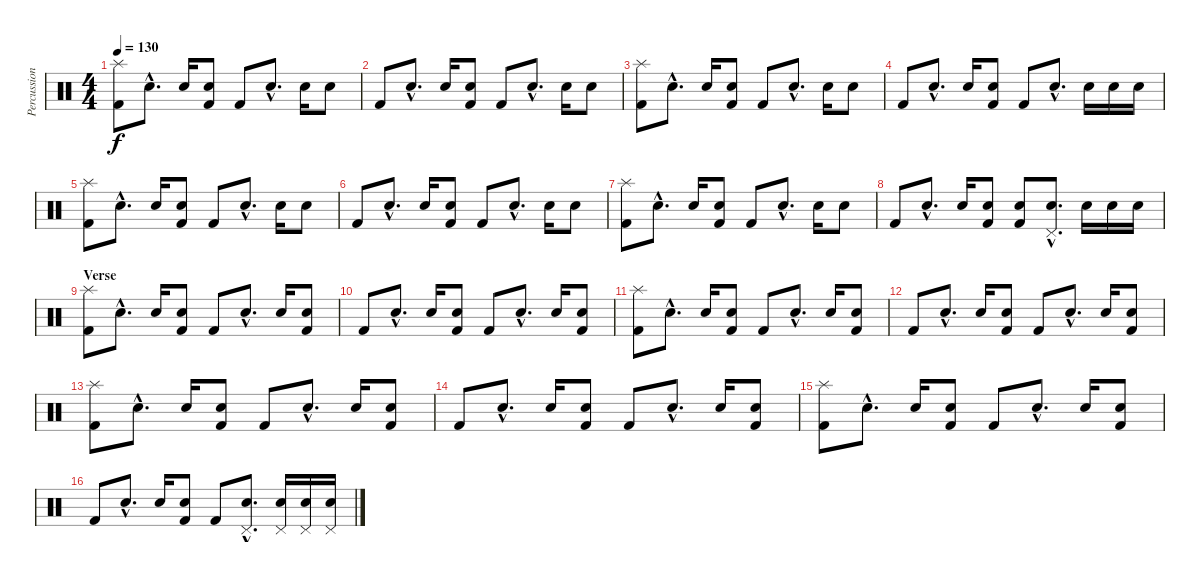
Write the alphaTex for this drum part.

\track ("Percussion" "Percussion") {instrument percussion}
\staff {score}
\articulation defaults
\ts (4 4)
\tempo 130
\clef neutral
\ks c
("Splash (hit)" "Kick (hit) 2").8{dy f} "Electric Snare (hit)"{hac}.8{d} "Electric Snare (hit)".16 ("Electric Snare (hit)" "Kick (hit) 2").8 "Kick (hit) 2".8 "Electric Snare (hit)"{hac}.8{d} "Electric Snare (hit)".16 "Electric Snare (hit)".8 |
"Kick (hit) 2".8 "Electric Snare (hit)"{hac}.8{d} "Electric Snare (hit)".16 ("Electric Snare (hit)" "Kick (hit) 2").8 "Kick (hit) 2".8 "Electric Snare (hit)"{hac}.8{d} "Electric Snare (hit)".16 "Electric Snare (hit)".8 |
("Splash (hit)" "Kick (hit) 2").8 "Electric Snare (hit)"{hac}.8{d} "Electric Snare (hit)".16 ("Electric Snare (hit)" "Kick (hit) 2").8 "Kick (hit) 2".8 "Electric Snare (hit)"{hac}.8{d} "Electric Snare (hit)".16 "Electric Snare (hit)".8 |
"Kick (hit) 2".8 "Electric Snare (hit)"{hac}.8{d} "Electric Snare (hit)".16 ("Electric Snare (hit)" "Kick (hit) 2").8 "Kick (hit) 2".8 "Electric Snare (hit)"{hac}.8{d} "Electric Snare (hit)".16 "Electric Snare (hit)".16 "Electric Snare (hit)".16 |
("Splash (hit)" "Kick (hit) 2").8 "Electric Snare (hit)"{hac}.8{d} "Electric Snare (hit)".16 ("Electric Snare (hit)" "Kick (hit) 2").8 "Kick (hit) 2".8 "Electric Snare (hit)"{hac}.8{d} "Electric Snare (hit)".16 "Electric Snare (hit)".8 |
"Kick (hit) 2".8 "Electric Snare (hit)"{hac}.8{d} "Electric Snare (hit)".16 ("Electric Snare (hit)" "Kick (hit) 2").8 "Kick (hit) 2".8 "Electric Snare (hit)"{hac}.8{d} "Electric Snare (hit)".16 "Electric Snare (hit)".8 |
("Splash (hit)" "Kick (hit) 2").8 "Electric Snare (hit)"{hac}.8{d} "Electric Snare (hit)".16 ("Electric Snare (hit)" "Kick (hit) 2").8 "Kick (hit) 2".8 "Electric Snare (hit)"{hac}.8{d} "Electric Snare (hit)".16 "Electric Snare (hit)".8 |
"Kick (hit) 2".8 "Electric Snare (hit)"{hac}.8{d} "Electric Snare (hit)".16 ("Electric Snare (hit)" "Kick (hit) 2").8 ("Electric Snare (hit)" "Kick (hit) 2").8 ("Pedal Hi-Hat (hit)"{hac} "Electric Snare (hit)"{hac}).8{d} "Electric Snare (hit)".16 "Electric Snare (hit)".16 "Electric Snare (hit)".16 |
\section ("" "Verse")
("Splash (hit)" "Kick (hit) 2").8 "Electric Snare (hit)"{hac}.8{d} "Electric Snare (hit)".16 ("Electric Snare (hit)" "Kick (hit) 2").8 "Kick (hit) 2".8 "Electric Snare (hit)"{hac}.8{d} "Electric Snare (hit)".16 ("Electric Snare (hit)" "Kick (hit) 2").8 |
"Kick (hit) 2".8 "Electric Snare (hit)"{hac}.8{d} "Electric Snare (hit)".16 ("Electric Snare (hit)" "Kick (hit) 2").8 "Kick (hit) 2".8 "Electric Snare (hit)"{hac}.8{d} "Electric Snare (hit)".16 ("Electric Snare (hit)" "Kick (hit) 2").8 |
("Splash (hit)" "Kick (hit) 2").8 "Electric Snare (hit)"{hac}.8{d} "Electric Snare (hit)".16 ("Electric Snare (hit)" "Kick (hit) 2").8 "Kick (hit) 2".8 "Electric Snare (hit)"{hac}.8{d} "Electric Snare (hit)".16 ("Electric Snare (hit)" "Kick (hit) 2").8 |
"Kick (hit) 2".8 "Electric Snare (hit)"{hac}.8{d} "Electric Snare (hit)".16 ("Electric Snare (hit)" "Kick (hit) 2").8 "Kick (hit) 2".8 "Electric Snare (hit)"{hac}.8{d} "Electric Snare (hit)".16 ("Electric Snare (hit)" "Kick (hit) 2").8 |
("Splash (hit)" "Kick (hit) 2").8 "Electric Snare (hit)"{hac}.8{d} "Electric Snare (hit)".16 ("Electric Snare (hit)" "Kick (hit) 2").8 "Kick (hit) 2".8 "Electric Snare (hit)"{hac}.8{d} "Electric Snare (hit)".16 ("Electric Snare (hit)" "Kick (hit) 2").8 |
"Kick (hit) 2".8 "Electric Snare (hit)"{hac}.8{d} "Electric Snare (hit)".16 ("Electric Snare (hit)" "Kick (hit) 2").8 "Kick (hit) 2".8 "Electric Snare (hit)"{hac}.8{d} "Electric Snare (hit)".16 ("Electric Snare (hit)" "Kick (hit) 2").8 |
("Splash (hit)" "Kick (hit) 2").8 "Electric Snare (hit)"{hac}.8{d} "Electric Snare (hit)".16 ("Electric Snare (hit)" "Kick (hit) 2").8 "Kick (hit) 2".8 "Electric Snare (hit)"{hac}.8{d} "Electric Snare (hit)".16 ("Electric Snare (hit)" "Kick (hit) 2").8 |
"Kick (hit) 2".8 "Electric Snare (hit)"{hac}.8{d} "Electric Snare (hit)".16 ("Electric Snare (hit)" "Kick (hit) 2").8 "Kick (hit) 2".8 ("Pedal Hi-Hat (hit)"{hac} "Electric Snare (hit)"{hac}).8{d} ("Pedal Hi-Hat (hit)" "Electric Snare (hit)").16 ("Pedal Hi-Hat (hit)" "Electric Snare (hit)").16 ("Pedal Hi-Hat (hit)" "Electric Snare (hit)").16
